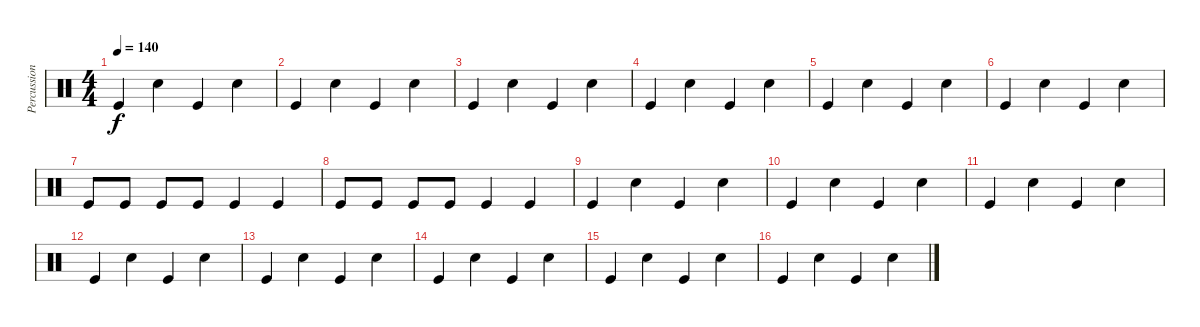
\track ("Percussion" "Percussion") {instrument percussion}
\staff {score}
\articulation defaults
\ts (4 4)
\tempo 140
\clef neutral
\ks c "Kick (hit)".4{dy f} "Snare (hit) 2".4 "Kick (hit)".4 "Snare (hit) 2".4
|
"Kick (hit)".4 "Snare (hit) 2".4 "Kick (hit)".4 "Snare (hit) 2".4 |
"Kick (hit)".4 "Snare (hit) 2".4 "Kick (hit)".4 "Snare (hit) 2".4 |
"Kick (hit)".4 "Snare (hit) 2".4 "Kick (hit)".4 "Snare (hit) 2".4 |
"Kick (hit)".4 "Snare (hit) 2".4 "Kick (hit)".4 "Snare (hit) 2".4 |
"Kick (hit)".4 "Snare (hit) 2".4 "Kick (hit)".4 "Snare (hit) 2".4 |
"Kick (hit)".8 "Kick (hit)".8 "Kick (hit)".8 "Kick (hit)".8 "Kick (hit)".4 "Kick (hit)".4 |
"Kick (hit)".8 "Kick (hit)".8 "Kick (hit)".8 "Kick (hit)".8 "Kick (hit)".4 "Kick (hit)".4 |
"Kick (hit)".4 "Snare (hit) 2".4 "Kick (hit)".4 "Snare (hit) 2".4 |
"Kick (hit)".4 "Snare (hit) 2".4 "Kick (hit)".4 "Snare (hit) 2".4 |
"Kick (hit)".4 "Snare (hit) 2".4 "Kick (hit)".4 "Snare (hit) 2".4 |
"Kick (hit)".4 "Snare (hit) 2".4 "Kick (hit)".4 "Snare (hit) 2".4 |
"Kick (hit)".4 "Snare (hit) 2".4 "Kick (hit)".4 "Snare (hit) 2".4 |
"Kick (hit)".4 "Snare (hit) 2".4 "Kick (hit)".4 "Snare (hit) 2".4 |
"Kick (hit)".4 "Snare (hit) 2".4 "Kick (hit)".4 "Snare (hit) 2".4 |
"Kick (hit)".4 "Snare (hit) 2".4 "Kick (hit)".4 "Snare (hit) 2".4
